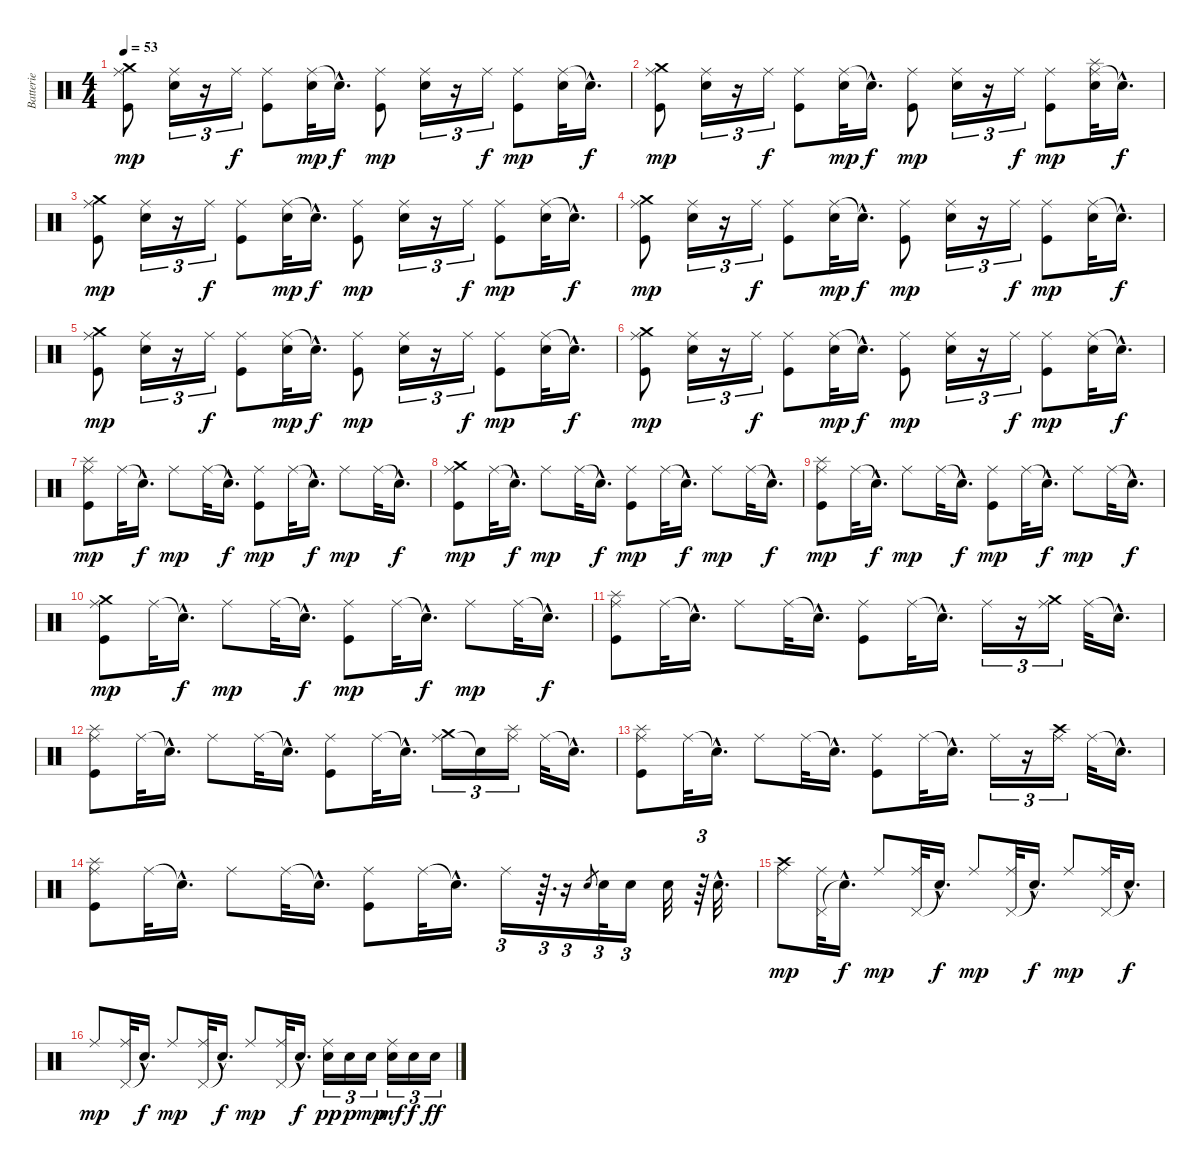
\track ("Batterie" "Batterie") {instrument percussion}
\staff {score}
\articulation defaults
\ts (4 4)
\tempo 53
\clef neutral
\ks c
("Ride (middle)" "Crash medium (hit)" "Kick (hit)").8{dy mp} ("Ride (middle)" "Snare (hit) 2").16{tu (3 2)} r.16{tu (3 2)} "Ride (middle)".16{tu (3 2) dy f} ("Ride (middle)" "Kick (hit)").8 ("Ride (middle)" "Snare (hit) 2").32{dy mp} "Snare (hit)"{hac t}.16{d dy f} ("Ride (middle)" "Kick (hit)").8{dy mp} ("Ride (middle)" "Snare (hit) 2").16{tu (3 2)} r.16{tu (3 2)} "Ride (middle)".16{tu (3 2) dy f} ("Ride (middle)" "Kick (hit)").8{dy mp} ("Ride (middle)" "Snare (hit) 2").32 "Snare (hit)"{hac t}.16{d dy f} |
("Ride (middle)" "Crash medium (hit)" "Kick (hit)").8{dy mp} ("Ride (middle)" "Snare (hit) 2").16{tu (3 2)} r.16{tu (3 2)} "Ride (middle)".16{tu (3 2) dy f} ("Ride (middle)" "Kick (hit)").8 ("Ride (middle)" "Snare (hit) 2").32{dy mp} "Snare (hit)"{hac t}.16{d dy f} ("Ride (middle)" "Kick (hit)").8{dy mp} ("Ride (middle)" "Snare (hit) 2").16{tu (3 2)} r.16{tu (3 2)} "Ride (middle)".16{tu (3 2) dy f} ("Ride (middle)" "Kick (hit)").8{dy mp} ("Ride (middle)" "Splash (hit)" "Snare (hit) 2").32 "Snare (hit)"{hac t}.16{d dy f} |
("Ride (middle)" "Crash medium (hit)" "Kick (hit)").8{dy mp} ("Ride (middle)" "Snare (hit) 2").16{tu (3 2)} r.16{tu (3 2)} "Ride (middle)".16{tu (3 2) dy f} ("Ride (middle)" "Kick (hit)").8 ("Ride (middle)" "Snare (hit) 2").32{dy mp} "Snare (hit)"{hac t}.16{d dy f} ("Ride (middle)" "Kick (hit)").8{dy mp} ("Ride (middle)" "Snare (hit) 2").16{tu (3 2)} r.16{tu (3 2)} "Ride (middle)".16{tu (3 2) dy f} ("Ride (middle)" "Kick (hit)").8{dy mp} ("Ride (middle)" "Snare (hit) 2").32 "Snare (hit)"{hac t}.16{d dy f} |
("Ride (middle)" "Crash medium (hit)" "Kick (hit)").8{dy mp} ("Ride (middle)" "Snare (hit) 2").16{tu (3 2)} r.16{tu (3 2)} "Ride (middle)".16{tu (3 2) dy f} ("Ride (middle)" "Kick (hit)").8 ("Ride (middle)" "Snare (hit) 2").32{dy mp} "Snare (hit)"{hac t}.16{d dy f} ("Ride (middle)" "Kick (hit)").8{dy mp} ("Ride (middle)" "Snare (hit) 2").16{tu (3 2)} r.16{tu (3 2)} "Ride (middle)".16{tu (3 2) dy f} ("Ride (middle)" "Kick (hit)").8{dy mp} ("Ride (middle)" "Snare (hit) 2").32 "Snare (hit)"{hac t}.16{d dy f} |
("Ride (middle)" "Crash medium (hit)" "Kick (hit)").8{dy mp} ("Ride (middle)" "Snare (hit) 2").16{tu (3 2)} r.16{tu (3 2)} "Ride (middle)".16{tu (3 2) dy f} ("Ride (middle)" "Kick (hit)").8 ("Ride (middle)" "Snare (hit) 2").32{dy mp} "Snare (hit)"{hac t}.16{d dy f} ("Ride (middle)" "Kick (hit)").8{dy mp} ("Ride (middle)" "Snare (hit) 2").16{tu (3 2)} r.16{tu (3 2)} "Ride (middle)".16{tu (3 2) dy f} ("Ride (middle)" "Kick (hit)").8{dy mp} ("Ride (middle)" "Snare (hit) 2").32 "Snare (hit)"{hac t}.16{d dy f} |
("Ride (middle)" "Crash medium (hit)" "Kick (hit)").8{dy mp} ("Ride (middle)" "Snare (hit) 2").16{tu (3 2)} r.16{tu (3 2)} "Ride (middle)".16{tu (3 2) dy f} ("Ride (middle)" "Kick (hit)").8 ("Ride (middle)" "Snare (hit) 2").32{dy mp} "Snare (hit)"{hac t}.16{d dy f} ("Ride (middle)" "Kick (hit)").8{dy mp} ("Ride (middle)" "Snare (hit) 2").16{tu (3 2)} r.16{tu (3 2)} "Ride (middle)".16{tu (3 2) dy f} ("Ride (middle)" "Kick (hit)").8{dy mp} ("Ride (middle)" "Snare (hit) 2").32 "Snare (hit)"{hac t}.16{d dy f} |
("Ride (middle)" "Splash (hit)" "Kick (hit)").8{dy mp} "Ride (middle)".32 "Snare (hit)"{hac t}.16{d dy f} "Ride (middle)".8{dy mp} "Ride (middle)".32 "Snare (hit)"{hac t}.16{d dy f} ("Ride (middle)" "Kick (hit)").8{dy mp} "Ride (middle)".32 "Snare (hit)"{hac t}.16{d dy f} "Ride (middle)".8{dy mp} "Ride (middle)".32 "Snare (hit)"{hac t}.16{d dy f} |
("Ride (middle)" "Crash medium (hit)" "Kick (hit)").8{dy mp} "Ride (middle)".32 "Snare (hit)"{hac t}.16{d dy f} "Ride (middle)".8{dy mp} "Ride (middle)".32 "Snare (hit)"{hac t}.16{d dy f} ("Ride (middle)" "Kick (hit)").8{dy mp} "Ride (middle)".32 "Snare (hit)"{hac t}.16{d dy f} "Ride (middle)".8{dy mp} "Ride (middle)".32 "Snare (hit)"{hac t}.16{d dy f} |
("Ride (middle)" "Splash (hit)" "Kick (hit)").8{dy mp} "Ride (middle)".32 "Snare (hit)"{hac t}.16{d dy f} "Ride (middle)".8{dy mp} "Ride (middle)".32 "Snare (hit)"{hac t}.16{d dy f} ("Ride (middle)" "Kick (hit)").8{dy mp} "Ride (middle)".32 "Snare (hit)"{hac t}.16{d dy f} "Ride (middle)".8{dy mp} "Ride (middle)".32 "Snare (hit)"{hac t}.16{d dy f} |
("Ride (middle)" "Crash medium (hit)" "Kick (hit)").8{dy mp} "Ride (middle)".32 "Snare (hit)"{hac t}.16{d dy f} "Ride (middle)".8{dy mp} "Ride (middle)".32 "Snare (hit)"{hac t}.16{d dy f} ("Ride (middle)" "Kick (hit)").8{dy mp} "Ride (middle)".32 "Snare (hit)"{hac t}.16{d dy f} "Ride (middle)".8{dy mp} "Ride (middle)".32 "Snare (hit)"{hac t}.16{d dy f} |
("Ride (middle)" "Splash (hit)" "Kick (hit)").8 "Ride (middle)".32 "Snare (hit)"{hac t}.16{d} "Ride (middle)".8 "Ride (middle)".32 "Snare (hit)"{hac t}.16{d} ("Ride (middle)" "Kick (hit)").8 "Ride (middle)".32 "Snare (hit)"{hac t}.16{d} "Ride (middle)".16{tu (3 2)} r.16{tu (3 2)} ("Ride (middle)" "Crash medium (hit)").16{tu (3 2)} "Ride (middle)".32 "Snare (hit)"{hac t}.16{d} |
("Ride (middle)" "Splash (hit)" "Kick (hit)").8 "Ride (middle)".32 "Snare (hit)"{hac t}.16{d} "Ride (middle)".8 "Ride (middle)".32 "Snare (hit)"{hac t}.16{d} ("Ride (middle)" "Kick (hit)").8 "Ride (middle)".32 "Snare (hit)"{hac t}.16{d} ("Ride (middle)" "Crash medium (hit)").16{tu (3 2)} "Snare (hit)"{t}.16{tu (3 2)} ("Ride (middle)" "Splash (hit)").16{tu (3 2)} "Ride (middle)".32 "Snare (hit)"{hac t}.16{d} |
("Ride (middle)" "Splash (hit)" "Kick (hit)").8 "Ride (middle)".32 "Snare (hit)"{hac t}.16{d} "Ride (middle)".8 "Ride (middle)".32 "Snare (hit)"{hac t}.16{d} ("Ride (middle)" "Kick (hit)").8 "Ride (middle)".32 "Snare (hit)"{hac t}.16{d} "Ride (middle)".16{tu (3 2)} r.16{tu (3 2)} ("Ride (middle)" "Crash high (hit)").16{tu (3 2)} "Ride (middle)".32 "Snare (hit)"{hac t}.16{d} |
("Ride (middle)" "Splash (hit)" "Kick (hit)").8 "Ride (middle)".32 "Snare (hit)"{hac t}.16{d} "Ride (middle)".8 "Ride (middle)".32 "Snare (hit)"{hac t}.16{d} ("Ride (middle)" "Kick (hit)").8 "Ride (middle)".32 "Snare (hit)"{hac t}.16{d} "Ride (middle)".16{tu (3 2)} r.64{d tu (3 2)} r.16{tu (3 2)} "Snare (hit) 2".8{gr} "Snare (hit) 2".32{tu (3 2)} "Snare (hit) 2".16{tu (3 2)} "Snare (hit) 2".32 r.64{tu (3 2)} "Snare (hit) 2"{hac}.32{d} |
("Ride (middle)" "Crash high (hit)").8{dy mp} ("Pedal Hi-Hat (hit)" "Ride (middle)").32 "Snare (hit)"{hac t}.16{d dy f} "Ride (middle)".8{dy mp} ("Pedal Hi-Hat (hit)" "Ride (middle)").32 "Snare (hit)"{hac t}.16{d dy f} "Ride (middle)".8{dy mp} ("Pedal Hi-Hat (hit)" "Ride (middle)").32 "Snare (hit)"{hac t}.16{d dy f} "Ride (middle)".8{dy mp} ("Pedal Hi-Hat (hit)" "Ride (middle)").32 "Snare (hit)"{hac t}.16{d dy f} |
"Ride (middle)".8{dy mp} ("Pedal Hi-Hat (hit)" "Ride (middle)").32 "Snare (hit)"{hac t}.16{d dy f} "Ride (middle)".8{dy mp} ("Pedal Hi-Hat (hit)" "Ride (middle)").32 "Snare (hit)"{hac t}.16{d dy f} "Ride (middle)".8{dy mp} ("Pedal Hi-Hat (hit)" "Ride (middle)").32 "Snare (hit)"{hac t}.16{d dy f} ("Ride (middle)" "Snare (hit) 2").16{tu (3 2) dy pp} "Snare (hit) 2".16{tu (3 2) dy p} "Snare (hit) 2".16{tu (3 2) dy mp} ("Ride (middle)" "Snare (hit) 2").16{tu (3 2) dy mf} "Snare (hit) 2".16{tu (3 2) dy f} "Snare (hit) 2".16{tu (3 2) dy ff}
